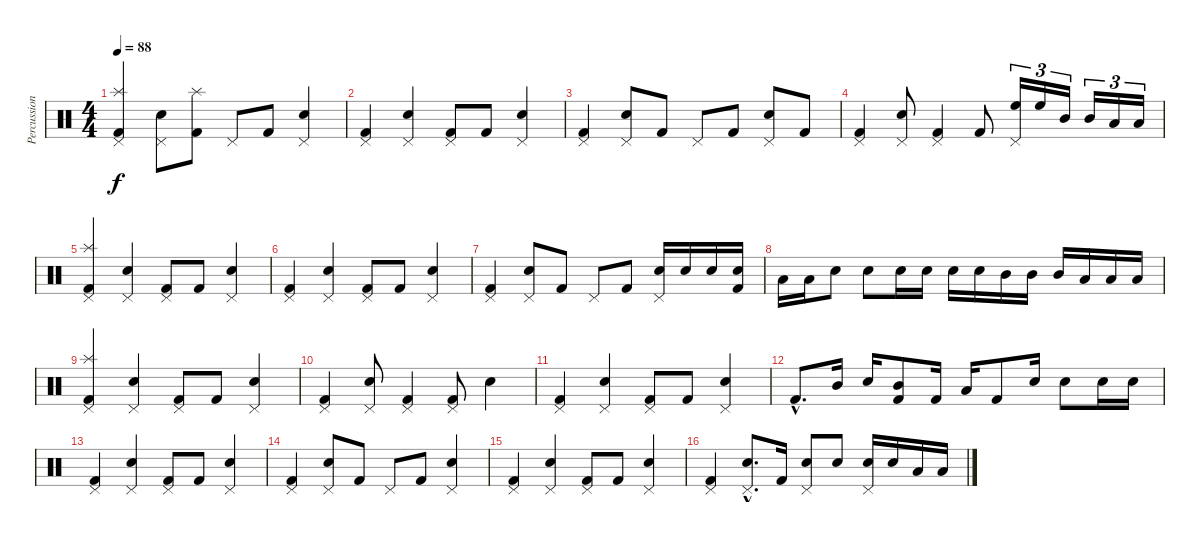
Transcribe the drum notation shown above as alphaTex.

\track ("Percussion" "Percussion") {instrument percussion}
\staff {score}
\articulation defaults
\ts (4 4)
\tempo 88
\clef neutral
\ks c
("Pedal Hi-Hat (hit)" "Splash (hit)" "Kick (hit) 2").4{dy f} ("Pedal Hi-Hat (hit)" "Snare (hit) 2").8 ("Splash (hit)" "Kick (hit) 2").8 "Pedal Hi-Hat (hit)".8 "Kick (hit) 2".8 ("Pedal Hi-Hat (hit)" "Snare (hit) 2").4 |
("Pedal Hi-Hat (hit)" "Kick (hit) 2").4 ("Pedal Hi-Hat (hit)" "Snare (hit) 2").4 ("Pedal Hi-Hat (hit)" "Kick (hit) 2").8 "Kick (hit) 2".8 ("Pedal Hi-Hat (hit)" "Snare (hit) 2").4 |
("Pedal Hi-Hat (hit)" "Kick (hit) 2").4 ("Pedal Hi-Hat (hit)" "Snare (hit) 2").8 "Kick (hit) 2".8 "Pedal Hi-Hat (hit)".8 "Kick (hit) 2".8 ("Pedal Hi-Hat (hit)" "Snare (hit) 2").8 "Kick (hit) 2".8 |
("Pedal Hi-Hat (hit)" "Kick (hit) 2").4 ("Pedal Hi-Hat (hit)" "Snare (hit) 2").8 ("Pedal Hi-Hat (hit)" "Kick (hit) 2").4 "Kick (hit) 2".8 ("Pedal Hi-Hat (hit)" "High Floor Tom (hit)").16{tu (3 2)} "High Floor Tom (hit)".16{tu (3 2)} "Mid Tom (hit)".16{tu (3 2)} "Mid Tom (hit)".16{tu (3 2)} "Low Tom (hit)".16{tu (3 2)} "Low Tom (hit)".16{tu (3 2)} |
("Pedal Hi-Hat (hit)" "Splash (hit)" "Kick (hit) 2").4 ("Pedal Hi-Hat (hit)" "Snare (hit) 2").4 ("Pedal Hi-Hat (hit)" "Kick (hit) 2").8 "Kick (hit) 2".8 ("Pedal Hi-Hat (hit)" "Snare (hit) 2").4 |
("Pedal Hi-Hat (hit)" "Kick (hit) 2").4 ("Pedal Hi-Hat (hit)" "Snare (hit) 2").4 ("Pedal Hi-Hat (hit)" "Kick (hit) 2").8 "Kick (hit) 2".8 ("Pedal Hi-Hat (hit)" "Snare (hit) 2").4 |
("Pedal Hi-Hat (hit)" "Kick (hit) 2").4 ("Pedal Hi-Hat (hit)" "Snare (hit) 2").8 "Kick (hit) 2".8 "Pedal Hi-Hat (hit)".8 "Kick (hit) 2".8 ("Pedal Hi-Hat (hit)" "Snare (hit) 2").16 "Snare (hit) 2".16 "Snare (hit) 2".16 ("Snare (hit) 2" "Kick (hit) 2").16 |
"Low Tom (hit)".16 "Low Tom (hit)".16 "Snare (hit) 2".8 "Snare (hit) 2".8 "Snare (hit) 2".16 "Snare (hit) 2".16 "Snare (hit) 2".16 "Snare (hit) 2".16 "Mid Tom (hit)".16 "Mid Tom (hit)".16 "Mid Tom (hit)".16 "Low Tom (hit)".16 "Low Tom (hit)".16 "Low Tom (hit)".16 |
("Pedal Hi-Hat (hit)" "Splash (hit)" "Kick (hit) 2").4 ("Pedal Hi-Hat (hit)" "Snare (hit) 2").4 ("Pedal Hi-Hat (hit)" "Kick (hit) 2").8 "Kick (hit) 2".8 ("Pedal Hi-Hat (hit)" "Snare (hit) 2").4 |
("Pedal Hi-Hat (hit)" "Kick (hit) 2").4 ("Pedal Hi-Hat (hit)" "Snare (hit) 2").8 ("Pedal Hi-Hat (hit)" "Kick (hit) 2").4 ("Pedal Hi-Hat (hit)" "Kick (hit) 2").8 "Snare (hit) 2".4 |
("Pedal Hi-Hat (hit)" "Kick (hit) 2").4 ("Pedal Hi-Hat (hit)" "Snare (hit) 2").4 ("Pedal Hi-Hat (hit)" "Kick (hit) 2").8 "Kick (hit) 2".8 ("Pedal Hi-Hat (hit)" "Snare (hit) 2").4 |
"Kick (hit) 2"{hac}.8{d} "Mid Tom (hit)".16 "Snare (hit) 2".16 ("Mid Tom (hit)" "Kick (hit) 2").8 "Kick (hit) 2".16 "Low Tom (hit)".16 "Kick (hit) 2".8 "Snare (hit) 2".16 "Snare (hit) 2".8 "Snare (hit) 2".16 "Snare (hit) 2".16 |
("Pedal Hi-Hat (hit)" "Kick (hit) 2").4 ("Pedal Hi-Hat (hit)" "Snare (hit) 2").4 ("Pedal Hi-Hat (hit)" "Kick (hit) 2").8 "Kick (hit) 2".8 ("Pedal Hi-Hat (hit)" "Snare (hit) 2").4 |
("Pedal Hi-Hat (hit)" "Kick (hit) 2").4 ("Pedal Hi-Hat (hit)" "Snare (hit) 2").8 "Kick (hit) 2".8 "Pedal Hi-Hat (hit)".8 "Kick (hit) 2".8 ("Pedal Hi-Hat (hit)" "Snare (hit) 2").4 |
("Pedal Hi-Hat (hit)" "Kick (hit) 2").4 ("Pedal Hi-Hat (hit)" "Snare (hit) 2").4 ("Pedal Hi-Hat (hit)" "Kick (hit) 2").8 "Kick (hit) 2".8 ("Pedal Hi-Hat (hit)" "Snare (hit) 2").4 |
("Pedal Hi-Hat (hit)" "Kick (hit) 2").4 ("Pedal Hi-Hat (hit)"{hac} "Snare (hit) 2"{hac}).8{d} "Kick (hit) 2".16 ("Pedal Hi-Hat (hit)" "Snare (hit) 2").8 "Snare (hit) 2".8 ("Pedal Hi-Hat (hit)" "Snare (hit) 2").16 "Snare (hit) 2".16 "Low Tom (hit)".16 "Low Tom (hit)".16
